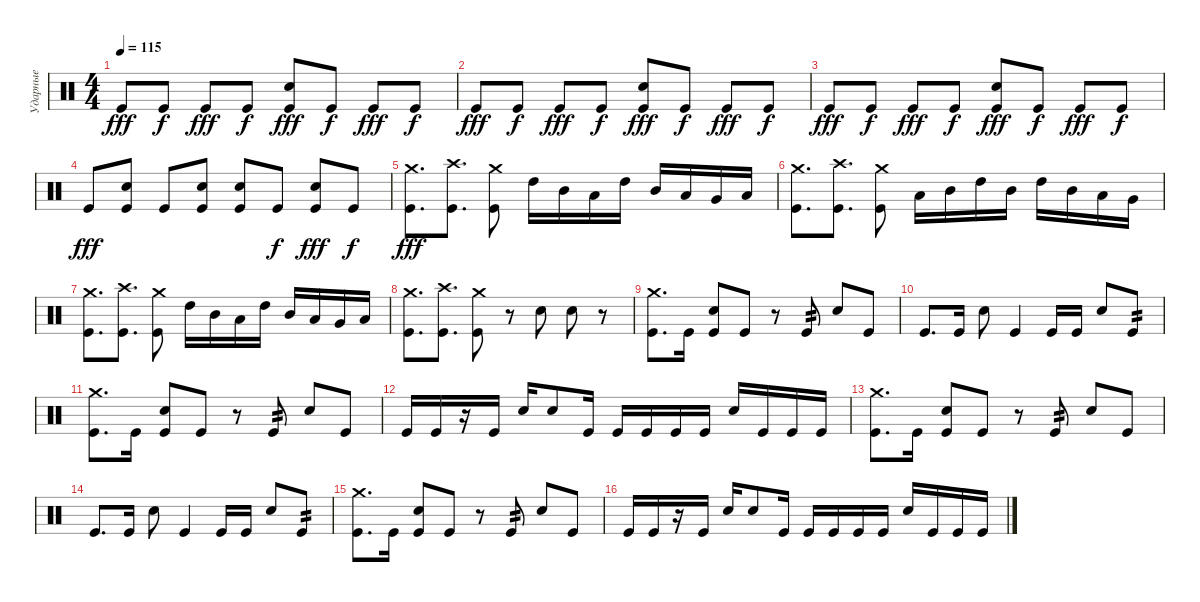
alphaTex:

\track ("Ударные" "Ударные") {instrument percussion}
\staff {score}
\articulation defaults
\ts (4 4)
\tempo 115
\clef neutral
\ks c "Kick (hit)".8{dy fff} "Kick (hit)".8{dy f} "Kick (hit)".8{dy fff} "Kick (hit)".8{dy f}
("Electric Snare (hit)" "Kick (hit)").8{dy fff} "Kick (hit)".8{dy f} "Kick (hit)".8{dy fff} "Kick (hit)".8{dy f} |
"Kick (hit)".8{dy fff} "Kick (hit)".8{dy f} "Kick (hit)".8{dy fff} "Kick (hit)".8{dy f} ("Electric Snare (hit)" "Kick (hit)").8{dy fff} "Kick (hit)".8{dy f} "Kick (hit)".8{dy fff} "Kick (hit)".8{dy f} |
"Kick (hit)".8{dy fff} "Kick (hit)".8{dy f} "Kick (hit)".8{dy fff} "Kick (hit)".8{dy f} ("Electric Snare (hit)" "Kick (hit)").8{dy fff} "Kick (hit)".8{dy f} "Kick (hit)".8{dy fff} "Kick (hit)".8{dy f} |
"Kick (hit)".8{dy fff} ("Electric Snare (hit)" "Kick (hit)").8 "Kick (hit)".8 ("Electric Snare (hit)" "Kick (hit)").8 ("Electric Snare (hit)" "Kick (hit)").8 "Kick (hit)".8{dy f} ("Electric Snare (hit)" "Kick (hit)").8{dy fff} "Kick (hit)".8{dy f} |
("Crash medium (hit)" "Kick (hit)").8{d dy fff} ("Crash high (hit)" "Kick (hit)").8{d} ("Crash medium (hit)" "Kick (hit)").8 "High Tom (hit)".16 "Mid Tom (hit)".16 "Low Tom (hit)".16 "High Tom (hit)".16 "Mid Tom (hit)".16 "Low Tom (hit)".16 "Very Low Tom (hit)".16 "Low Floor Tom (hit)".16 |
("Crash medium (hit)" "Kick (hit)").8{d} ("Crash high (hit)" "Kick (hit)").8{d} ("Crash medium (hit)" "Kick (hit)").8 "Low Tom (hit)".16 "Mid Tom (hit)".16 "High Tom (hit)".16 "Mid Tom (hit)".16 "High Tom (hit)".16 "Mid Tom (hit)".16 "Low Tom (hit)".16 "Very Low Tom (hit)".16 |
("Crash medium (hit)" "Kick (hit)").8{d} ("Crash high (hit)" "Kick (hit)").8{d} ("Crash medium (hit)" "Kick (hit)").8 "High Tom (hit)".16 "Mid Tom (hit)".16 "Low Tom (hit)".16 "High Tom (hit)".16 "Mid Tom (hit)".16 "Low Tom (hit)".16 "Very Low Tom (hit)".16 "Low Floor Tom (hit)".16 |
("Crash medium (hit)" "Kick (hit)").8{d} ("Crash high (hit)" "Kick (hit)").8{d} ("Crash medium (hit)" "Kick (hit)").8 r.8 "Electric Snare (hit)".8 "Electric Snare (hit)".8 r.8 |
("Crash medium (hit)" "Kick (hit)").8{d} "Kick (hit)".16 ("Electric Snare (hit)" "Kick (hit)").8 "Kick (hit)".8 r.8 "Kick (hit)".8{tp 2} "Electric Snare (hit)".8 "Kick (hit)".8 |
"Kick (hit)".8{d} "Kick (hit)".16 "Electric Snare (hit)".8 "Kick (hit)".4 "Kick (hit)".16 "Kick (hit)".16 "Electric Snare (hit)".8 "Kick (hit)".8{tp 2} |
("Crash medium (hit)" "Kick (hit)").8{d} "Kick (hit)".16 ("Electric Snare (hit)" "Kick (hit)").8 "Kick (hit)".8 r.8 "Kick (hit)".8{tp 2} "Electric Snare (hit)".8 "Kick (hit)".8 |
"Kick (hit)".16 "Kick (hit)".16 r.16 "Kick (hit)".16 "Electric Snare (hit)".16 "Electric Snare (hit)".8 "Kick (hit)".16 "Kick (hit)".16 "Kick (hit)".16 "Kick (hit)".16 "Kick (hit)".16 "Electric Snare (hit)".16 "Kick (hit)".16 "Kick (hit)".16 "Kick (hit)".16 |
("Crash medium (hit)" "Kick (hit)").8{d} "Kick (hit)".16 ("Electric Snare (hit)" "Kick (hit)").8 "Kick (hit)".8 r.8 "Kick (hit)".8{tp 2} "Electric Snare (hit)".8 "Kick (hit)".8 |
"Kick (hit)".8{d} "Kick (hit)".16 "Electric Snare (hit)".8 "Kick (hit)".4 "Kick (hit)".16 "Kick (hit)".16 "Electric Snare (hit)".8 "Kick (hit)".8{tp 2} |
("Crash medium (hit)" "Kick (hit)").8{d} "Kick (hit)".16 ("Electric Snare (hit)" "Kick (hit)").8 "Kick (hit)".8 r.8 "Kick (hit)".8{tp 2} "Electric Snare (hit)".8 "Kick (hit)".8 |
"Kick (hit)".16 "Kick (hit)".16 r.16 "Kick (hit)".16 "Electric Snare (hit)".16 "Electric Snare (hit)".8 "Kick (hit)".16 "Kick (hit)".16 "Kick (hit)".16 "Kick (hit)".16 "Kick (hit)".16 "Electric Snare (hit)".16 "Kick (hit)".16 "Kick (hit)".16 "Kick (hit)".16
